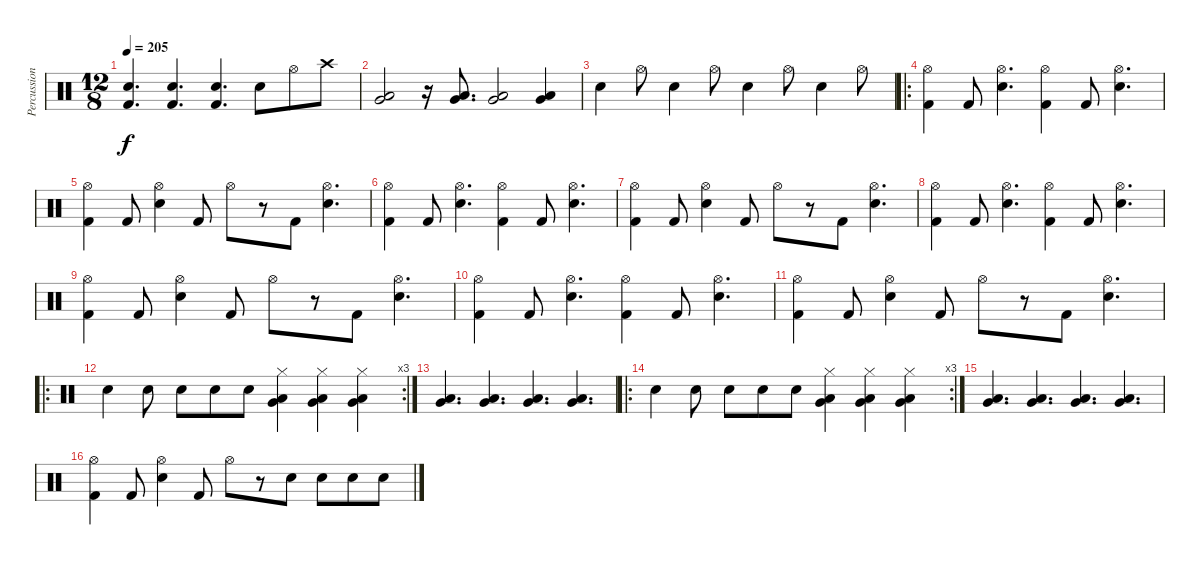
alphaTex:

\track ("Percussion" "Percussion") {instrument percussion}
\staff {score}
\articulation defaults
\ts (12 8)
\tempo 205
\clef neutral
\ks c
("Snare (hit) 2" "Kick (hit) 2").4{d dy f} ("Snare (hit) 2" "Kick (hit) 2").4{d} ("Snare (hit) 2" "Kick (hit) 2").4{d} "Snare (hit) 2".8 "Hi-Hat (open)".8 "Crash high (hit)".8 |
("Very Low Tom (hit)" "Low Floor Tom (hit)").2 r.16 ("Very Low Tom (hit)" "Low Floor Tom (hit)").8{d} ("Very Low Tom (hit)" "Low Floor Tom (hit)").2 ("Very Low Tom (hit)" "Low Floor Tom (hit)").4 |
"Snare (hit) 2".4 "Hi-Hat (open)".8 "Snare (hit) 2".4 "Hi-Hat (open)".8 "Snare (hit) 2".4 "Hi-Hat (open)".8 "Snare (hit) 2".4 "Hi-Hat (open)".8 |
\ro
("Hi-Hat (open)" "Kick (hit) 2").4 "Kick (hit) 2".8 ("Hi-Hat (open)" "Snare (hit) 2").4{d} ("Hi-Hat (open)" "Kick (hit) 2").4 "Kick (hit) 2".8 ("Hi-Hat (open)" "Snare (hit) 2").4{d} |
("Hi-Hat (open)" "Kick (hit) 2").4 "Kick (hit) 2".8 ("Hi-Hat (open)" "Snare (hit) 2").4 "Kick (hit) 2".8 "Hi-Hat (open)".8 r.8 "Kick (hit) 2".8 ("Hi-Hat (open)" "Snare (hit) 2").4{d} |
("Hi-Hat (open)" "Kick (hit) 2").4 "Kick (hit) 2".8 ("Hi-Hat (open)" "Snare (hit) 2").4{d} ("Hi-Hat (open)" "Kick (hit) 2").4 "Kick (hit) 2".8 ("Hi-Hat (open)" "Snare (hit) 2").4{d} |
("Hi-Hat (open)" "Kick (hit) 2").4 "Kick (hit) 2".8 ("Hi-Hat (open)" "Snare (hit) 2").4 "Kick (hit) 2".8 "Hi-Hat (open)".8 r.8 "Kick (hit) 2".8 ("Hi-Hat (open)" "Snare (hit) 2").4{d} |
("Hi-Hat (open)" "Kick (hit) 2").4 "Kick (hit) 2".8 ("Hi-Hat (open)" "Snare (hit) 2").4{d} ("Hi-Hat (open)" "Kick (hit) 2").4 "Kick (hit) 2".8 ("Hi-Hat (open)" "Snare (hit) 2").4{d} |
("Hi-Hat (open)" "Kick (hit) 2").4 "Kick (hit) 2".8 ("Hi-Hat (open)" "Snare (hit) 2").4 "Kick (hit) 2".8 "Hi-Hat (open)".8 r.8 "Kick (hit) 2".8 ("Hi-Hat (open)" "Snare (hit) 2").4{d} |
("Hi-Hat (open)" "Kick (hit) 2").4 "Kick (hit) 2".8 ("Hi-Hat (open)" "Snare (hit) 2").4{d} ("Hi-Hat (open)" "Kick (hit) 2").4 "Kick (hit) 2".8 ("Hi-Hat (open)" "Snare (hit) 2").4{d} |
("Hi-Hat (open)" "Kick (hit) 2").4 "Kick (hit) 2".8 ("Hi-Hat (open)" "Snare (hit) 2").4 "Kick (hit) 2".8 "Hi-Hat (open)".8 r.8 "Kick (hit) 2".8 ("Hi-Hat (open)" "Snare (hit) 2").4{d} |
\ro
\rc 3 "Snare (hit) 2".4 "Snare (hit) 2".8 "Snare (hit) 2".8 "Snare (hit) 2".8 "Snare (hit) 2".8
("Hi-Hat (closed)" "Very Low Tom (hit)" "Low Floor Tom (hit)").4 ("Hi-Hat (closed)" "Very Low Tom (hit)" "Low Floor Tom (hit)").4 ("Hi-Hat (closed)" "Very Low Tom (hit)" "Low Floor Tom (hit)").4 |
("Low Floor Tom (hit)" "Very Low Tom (hit)").4{d} ("Low Floor Tom (hit)" "Very Low Tom (hit)").4{d} ("Low Floor Tom (hit)" "Very Low Tom (hit)").4{d} ("Low Floor Tom (hit)" "Very Low Tom (hit)").4{d} |
\ro
\rc 3 "Snare (hit) 2".4 "Snare (hit) 2".8 "Snare (hit) 2".8 "Snare (hit) 2".8 "Snare (hit) 2".8
("Hi-Hat (closed)" "Very Low Tom (hit)" "Low Floor Tom (hit)").4 ("Hi-Hat (closed)" "Very Low Tom (hit)" "Low Floor Tom (hit)").4 ("Hi-Hat (closed)" "Very Low Tom (hit)" "Low Floor Tom (hit)").4 |
("Low Floor Tom (hit)" "Very Low Tom (hit)").4{d} ("Low Floor Tom (hit)" "Very Low Tom (hit)").4{d} ("Low Floor Tom (hit)" "Very Low Tom (hit)").4{d} ("Low Floor Tom (hit)" "Very Low Tom (hit)").4{d} |
("Hi-Hat (open)" "Kick (hit) 2").4 "Kick (hit) 2".8 ("Hi-Hat (open)" "Snare (hit) 2").4 "Kick (hit) 2".8 "Hi-Hat (open)".8 r.8 "Snare (hit) 2".8 "Snare (hit) 2".8 "Snare (hit) 2".8 "Snare (hit) 2".8
